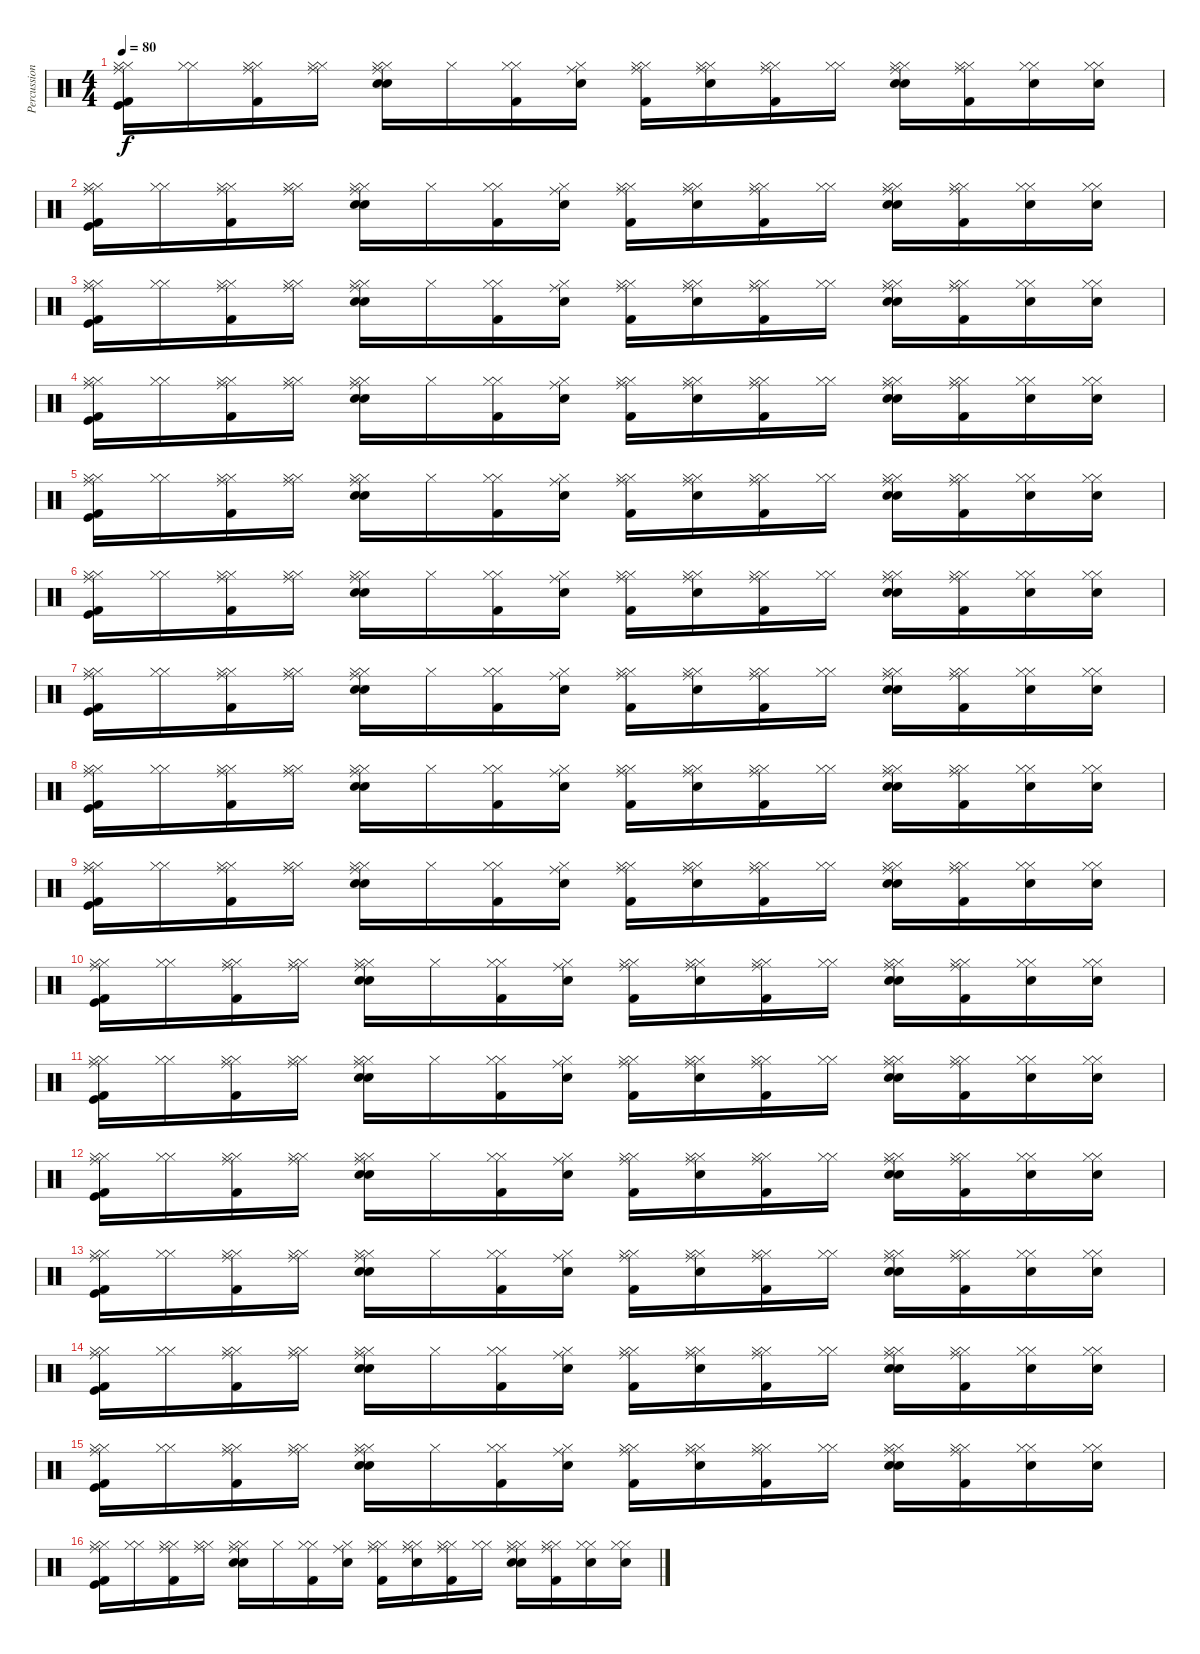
\track ("Percussions" "Percussion") {instrument percussion}
\staff {score}
\articulation defaults
\ts (4 4)
\tempo 80
\clef neutral
\ks c
("Hi-Hat (closed)" "Hi-Hat (closed)" "Ride (middle)" "Kick (hit) 2" "Kick (hit)").16{dy f} ("Hi-Hat (closed)" "Hi-Hat (closed)").16 ("Hi-Hat (closed)" "Ride (middle)" "Hi-Hat (closed)" "Kick (hit) 2").16 ("Hi-Hat (closed)" "Hi-Hat (closed)" "Ride (middle)").16 ("Snare (hit) 2" "Electric Snare (hit)" "Hi-Hat (closed)" "Hi-Hat (closed)" "Ride (middle)").16 "Hi-Hat (closed)".16 ("Hi-Hat (closed)" "Hi-Hat (closed)" "Kick (hit) 2").16 ("Electric Snare (hit)" "Hi-Hat (closed)" "Ride (middle)").16 ("Hi-Hat (closed)" "Hi-Hat (closed)" "Ride (middle)" "Kick (hit) 2").16 ("Hi-Hat (closed)" "Hi-Hat (closed)" "Ride (middle)" "Electric Snare (hit)").16 ("Hi-Hat (closed)" "Ride (middle)" "Hi-Hat (closed)" "Kick (hit) 2").16 ("Hi-Hat (closed)" "Hi-Hat (closed)").16 ("Snare (hit) 2" "Electric Snare (hit)" "Hi-Hat (closed)" "Ride (middle)" "Hi-Hat (closed)").16 ("Hi-Hat (closed)" "Hi-Hat (closed)" "Ride (middle)" "Kick (hit) 2").16 ("Hi-Hat (closed)" "Hi-Hat (closed)" "Electric Snare (hit)").16 ("Hi-Hat (closed)" "Hi-Hat (closed)" "Electric Snare (hit)").16 |
("Hi-Hat (closed)" "Hi-Hat (closed)" "Ride (middle)" "Kick (hit) 2" "Kick (hit)").16 ("Hi-Hat (closed)" "Hi-Hat (closed)").16 ("Hi-Hat (closed)" "Ride (middle)" "Hi-Hat (closed)" "Kick (hit) 2").16 ("Hi-Hat (closed)" "Hi-Hat (closed)" "Ride (middle)").16 ("Snare (hit) 2" "Electric Snare (hit)" "Hi-Hat (closed)" "Hi-Hat (closed)" "Ride (middle)").16 "Hi-Hat (closed)".16 ("Hi-Hat (closed)" "Hi-Hat (closed)" "Kick (hit) 2").16 ("Electric Snare (hit)" "Hi-Hat (closed)" "Ride (middle)").16 ("Hi-Hat (closed)" "Hi-Hat (closed)" "Ride (middle)" "Kick (hit) 2").16 ("Hi-Hat (closed)" "Hi-Hat (closed)" "Ride (middle)" "Electric Snare (hit)").16 ("Hi-Hat (closed)" "Ride (middle)" "Hi-Hat (closed)" "Kick (hit) 2").16 ("Hi-Hat (closed)" "Hi-Hat (closed)").16 ("Snare (hit) 2" "Electric Snare (hit)" "Hi-Hat (closed)" "Ride (middle)" "Hi-Hat (closed)").16 ("Hi-Hat (closed)" "Hi-Hat (closed)" "Ride (middle)" "Kick (hit) 2").16 ("Hi-Hat (closed)" "Hi-Hat (closed)" "Electric Snare (hit)").16 ("Hi-Hat (closed)" "Hi-Hat (closed)" "Electric Snare (hit)").16 |
("Hi-Hat (closed)" "Hi-Hat (closed)" "Ride (middle)" "Kick (hit) 2" "Kick (hit)").16 ("Hi-Hat (closed)" "Hi-Hat (closed)").16 ("Hi-Hat (closed)" "Ride (middle)" "Hi-Hat (closed)" "Kick (hit) 2").16 ("Hi-Hat (closed)" "Hi-Hat (closed)" "Ride (middle)").16 ("Snare (hit) 2" "Electric Snare (hit)" "Hi-Hat (closed)" "Hi-Hat (closed)" "Ride (middle)").16 "Hi-Hat (closed)".16 ("Hi-Hat (closed)" "Hi-Hat (closed)" "Kick (hit) 2").16 ("Electric Snare (hit)" "Hi-Hat (closed)" "Ride (middle)").16 ("Hi-Hat (closed)" "Hi-Hat (closed)" "Ride (middle)" "Kick (hit) 2").16 ("Hi-Hat (closed)" "Hi-Hat (closed)" "Ride (middle)" "Electric Snare (hit)").16 ("Hi-Hat (closed)" "Ride (middle)" "Hi-Hat (closed)" "Kick (hit) 2").16 ("Hi-Hat (closed)" "Hi-Hat (closed)").16 ("Snare (hit) 2" "Electric Snare (hit)" "Hi-Hat (closed)" "Ride (middle)" "Hi-Hat (closed)").16 ("Hi-Hat (closed)" "Hi-Hat (closed)" "Ride (middle)" "Kick (hit) 2").16 ("Hi-Hat (closed)" "Hi-Hat (closed)" "Electric Snare (hit)").16 ("Hi-Hat (closed)" "Hi-Hat (closed)" "Electric Snare (hit)").16 |
("Hi-Hat (closed)" "Hi-Hat (closed)" "Ride (middle)" "Kick (hit) 2" "Kick (hit)").16 ("Hi-Hat (closed)" "Hi-Hat (closed)").16 ("Hi-Hat (closed)" "Ride (middle)" "Hi-Hat (closed)" "Kick (hit) 2").16 ("Hi-Hat (closed)" "Hi-Hat (closed)" "Ride (middle)").16 ("Snare (hit) 2" "Electric Snare (hit)" "Hi-Hat (closed)" "Hi-Hat (closed)" "Ride (middle)").16 "Hi-Hat (closed)".16 ("Hi-Hat (closed)" "Hi-Hat (closed)" "Kick (hit) 2").16 ("Electric Snare (hit)" "Hi-Hat (closed)" "Ride (middle)").16 ("Hi-Hat (closed)" "Hi-Hat (closed)" "Ride (middle)" "Kick (hit) 2").16 ("Hi-Hat (closed)" "Hi-Hat (closed)" "Ride (middle)" "Electric Snare (hit)").16 ("Hi-Hat (closed)" "Ride (middle)" "Hi-Hat (closed)" "Kick (hit) 2").16 ("Hi-Hat (closed)" "Hi-Hat (closed)").16 ("Snare (hit) 2" "Electric Snare (hit)" "Hi-Hat (closed)" "Ride (middle)" "Hi-Hat (closed)").16 ("Hi-Hat (closed)" "Hi-Hat (closed)" "Ride (middle)" "Kick (hit) 2").16 ("Hi-Hat (closed)" "Hi-Hat (closed)" "Electric Snare (hit)").16 ("Hi-Hat (closed)" "Hi-Hat (closed)" "Electric Snare (hit)").16 |
("Hi-Hat (closed)" "Hi-Hat (closed)" "Ride (middle)" "Kick (hit) 2" "Kick (hit)").16 ("Hi-Hat (closed)" "Hi-Hat (closed)").16 ("Hi-Hat (closed)" "Ride (middle)" "Hi-Hat (closed)" "Kick (hit) 2").16 ("Hi-Hat (closed)" "Hi-Hat (closed)" "Ride (middle)").16 ("Snare (hit) 2" "Electric Snare (hit)" "Hi-Hat (closed)" "Hi-Hat (closed)" "Ride (middle)").16 "Hi-Hat (closed)".16 ("Hi-Hat (closed)" "Hi-Hat (closed)" "Kick (hit) 2").16 ("Electric Snare (hit)" "Hi-Hat (closed)" "Ride (middle)").16 ("Hi-Hat (closed)" "Hi-Hat (closed)" "Ride (middle)" "Kick (hit) 2").16 ("Hi-Hat (closed)" "Hi-Hat (closed)" "Ride (middle)" "Electric Snare (hit)").16 ("Hi-Hat (closed)" "Ride (middle)" "Hi-Hat (closed)" "Kick (hit) 2").16 ("Hi-Hat (closed)" "Hi-Hat (closed)").16 ("Snare (hit) 2" "Electric Snare (hit)" "Hi-Hat (closed)" "Ride (middle)" "Hi-Hat (closed)").16 ("Hi-Hat (closed)" "Hi-Hat (closed)" "Ride (middle)" "Kick (hit) 2").16 ("Hi-Hat (closed)" "Hi-Hat (closed)" "Electric Snare (hit)").16 ("Hi-Hat (closed)" "Hi-Hat (closed)" "Electric Snare (hit)").16 |
("Hi-Hat (closed)" "Hi-Hat (closed)" "Ride (middle)" "Kick (hit) 2" "Kick (hit)").16 ("Hi-Hat (closed)" "Hi-Hat (closed)").16 ("Hi-Hat (closed)" "Ride (middle)" "Hi-Hat (closed)" "Kick (hit) 2").16 ("Hi-Hat (closed)" "Hi-Hat (closed)" "Ride (middle)").16 ("Snare (hit) 2" "Electric Snare (hit)" "Hi-Hat (closed)" "Hi-Hat (closed)" "Ride (middle)").16 "Hi-Hat (closed)".16 ("Hi-Hat (closed)" "Hi-Hat (closed)" "Kick (hit) 2").16 ("Electric Snare (hit)" "Hi-Hat (closed)" "Ride (middle)").16 ("Hi-Hat (closed)" "Hi-Hat (closed)" "Ride (middle)" "Kick (hit) 2").16 ("Hi-Hat (closed)" "Hi-Hat (closed)" "Ride (middle)" "Electric Snare (hit)").16 ("Hi-Hat (closed)" "Ride (middle)" "Hi-Hat (closed)" "Kick (hit) 2").16 ("Hi-Hat (closed)" "Hi-Hat (closed)").16 ("Snare (hit) 2" "Electric Snare (hit)" "Hi-Hat (closed)" "Ride (middle)" "Hi-Hat (closed)").16 ("Hi-Hat (closed)" "Hi-Hat (closed)" "Ride (middle)" "Kick (hit) 2").16 ("Hi-Hat (closed)" "Hi-Hat (closed)" "Electric Snare (hit)").16 ("Hi-Hat (closed)" "Hi-Hat (closed)" "Electric Snare (hit)").16 |
("Hi-Hat (closed)" "Hi-Hat (closed)" "Ride (middle)" "Kick (hit) 2" "Kick (hit)").16 ("Hi-Hat (closed)" "Hi-Hat (closed)").16 ("Hi-Hat (closed)" "Ride (middle)" "Hi-Hat (closed)" "Kick (hit) 2").16 ("Hi-Hat (closed)" "Hi-Hat (closed)" "Ride (middle)").16 ("Snare (hit) 2" "Electric Snare (hit)" "Hi-Hat (closed)" "Hi-Hat (closed)" "Ride (middle)").16 "Hi-Hat (closed)".16 ("Hi-Hat (closed)" "Hi-Hat (closed)" "Kick (hit) 2").16 ("Electric Snare (hit)" "Hi-Hat (closed)" "Ride (middle)").16 ("Hi-Hat (closed)" "Hi-Hat (closed)" "Ride (middle)" "Kick (hit) 2").16 ("Hi-Hat (closed)" "Hi-Hat (closed)" "Ride (middle)" "Electric Snare (hit)").16 ("Hi-Hat (closed)" "Ride (middle)" "Hi-Hat (closed)" "Kick (hit) 2").16 ("Hi-Hat (closed)" "Hi-Hat (closed)").16 ("Snare (hit) 2" "Electric Snare (hit)" "Hi-Hat (closed)" "Ride (middle)" "Hi-Hat (closed)").16 ("Hi-Hat (closed)" "Hi-Hat (closed)" "Ride (middle)" "Kick (hit) 2").16 ("Hi-Hat (closed)" "Hi-Hat (closed)" "Electric Snare (hit)").16 ("Hi-Hat (closed)" "Hi-Hat (closed)" "Electric Snare (hit)").16 |
("Hi-Hat (closed)" "Hi-Hat (closed)" "Ride (middle)" "Kick (hit) 2" "Kick (hit)").16 ("Hi-Hat (closed)" "Hi-Hat (closed)").16 ("Hi-Hat (closed)" "Ride (middle)" "Hi-Hat (closed)" "Kick (hit) 2").16 ("Hi-Hat (closed)" "Hi-Hat (closed)" "Ride (middle)").16 ("Snare (hit) 2" "Electric Snare (hit)" "Hi-Hat (closed)" "Hi-Hat (closed)" "Ride (middle)").16 "Hi-Hat (closed)".16 ("Hi-Hat (closed)" "Hi-Hat (closed)" "Kick (hit) 2").16 ("Electric Snare (hit)" "Hi-Hat (closed)" "Ride (middle)").16 ("Hi-Hat (closed)" "Hi-Hat (closed)" "Ride (middle)" "Kick (hit) 2").16 ("Hi-Hat (closed)" "Hi-Hat (closed)" "Ride (middle)" "Electric Snare (hit)").16 ("Hi-Hat (closed)" "Ride (middle)" "Hi-Hat (closed)" "Kick (hit) 2").16 ("Hi-Hat (closed)" "Hi-Hat (closed)").16 ("Snare (hit) 2" "Electric Snare (hit)" "Hi-Hat (closed)" "Ride (middle)" "Hi-Hat (closed)").16 ("Hi-Hat (closed)" "Hi-Hat (closed)" "Ride (middle)" "Kick (hit) 2").16 ("Hi-Hat (closed)" "Hi-Hat (closed)" "Electric Snare (hit)").16 ("Hi-Hat (closed)" "Hi-Hat (closed)" "Electric Snare (hit)").16 |
("Hi-Hat (closed)" "Hi-Hat (closed)" "Ride (middle)" "Kick (hit) 2" "Kick (hit)").16 ("Hi-Hat (closed)" "Hi-Hat (closed)").16 ("Hi-Hat (closed)" "Ride (middle)" "Hi-Hat (closed)" "Kick (hit) 2").16 ("Hi-Hat (closed)" "Hi-Hat (closed)" "Ride (middle)").16 ("Snare (hit) 2" "Electric Snare (hit)" "Hi-Hat (closed)" "Hi-Hat (closed)" "Ride (middle)").16 "Hi-Hat (closed)".16 ("Hi-Hat (closed)" "Hi-Hat (closed)" "Kick (hit) 2").16 ("Electric Snare (hit)" "Hi-Hat (closed)" "Ride (middle)").16 ("Hi-Hat (closed)" "Hi-Hat (closed)" "Ride (middle)" "Kick (hit) 2").16 ("Hi-Hat (closed)" "Hi-Hat (closed)" "Ride (middle)" "Electric Snare (hit)").16 ("Hi-Hat (closed)" "Ride (middle)" "Hi-Hat (closed)" "Kick (hit) 2").16 ("Hi-Hat (closed)" "Hi-Hat (closed)").16 ("Snare (hit) 2" "Electric Snare (hit)" "Hi-Hat (closed)" "Ride (middle)" "Hi-Hat (closed)").16 ("Hi-Hat (closed)" "Hi-Hat (closed)" "Ride (middle)" "Kick (hit) 2").16 ("Hi-Hat (closed)" "Hi-Hat (closed)" "Electric Snare (hit)").16 ("Hi-Hat (closed)" "Hi-Hat (closed)" "Electric Snare (hit)").16 |
("Hi-Hat (closed)" "Hi-Hat (closed)" "Ride (middle)" "Kick (hit) 2" "Kick (hit)").16 ("Hi-Hat (closed)" "Hi-Hat (closed)").16 ("Hi-Hat (closed)" "Ride (middle)" "Hi-Hat (closed)" "Kick (hit) 2").16 ("Hi-Hat (closed)" "Hi-Hat (closed)" "Ride (middle)").16 ("Snare (hit) 2" "Electric Snare (hit)" "Hi-Hat (closed)" "Hi-Hat (closed)" "Ride (middle)").16 "Hi-Hat (closed)".16 ("Hi-Hat (closed)" "Hi-Hat (closed)" "Kick (hit) 2").16 ("Electric Snare (hit)" "Hi-Hat (closed)" "Ride (middle)").16 ("Hi-Hat (closed)" "Hi-Hat (closed)" "Ride (middle)" "Kick (hit) 2").16 ("Hi-Hat (closed)" "Hi-Hat (closed)" "Ride (middle)" "Electric Snare (hit)").16 ("Hi-Hat (closed)" "Ride (middle)" "Hi-Hat (closed)" "Kick (hit) 2").16 ("Hi-Hat (closed)" "Hi-Hat (closed)").16 ("Snare (hit) 2" "Electric Snare (hit)" "Hi-Hat (closed)" "Ride (middle)" "Hi-Hat (closed)").16 ("Hi-Hat (closed)" "Hi-Hat (closed)" "Ride (middle)" "Kick (hit) 2").16 ("Hi-Hat (closed)" "Hi-Hat (closed)" "Electric Snare (hit)").16 ("Hi-Hat (closed)" "Hi-Hat (closed)" "Electric Snare (hit)").16 |
("Hi-Hat (closed)" "Hi-Hat (closed)" "Ride (middle)" "Kick (hit) 2" "Kick (hit)").16 ("Hi-Hat (closed)" "Hi-Hat (closed)").16 ("Hi-Hat (closed)" "Ride (middle)" "Hi-Hat (closed)" "Kick (hit) 2").16 ("Hi-Hat (closed)" "Hi-Hat (closed)" "Ride (middle)").16 ("Snare (hit) 2" "Electric Snare (hit)" "Hi-Hat (closed)" "Hi-Hat (closed)" "Ride (middle)").16 "Hi-Hat (closed)".16 ("Hi-Hat (closed)" "Hi-Hat (closed)" "Kick (hit) 2").16 ("Electric Snare (hit)" "Hi-Hat (closed)" "Ride (middle)").16 ("Hi-Hat (closed)" "Hi-Hat (closed)" "Ride (middle)" "Kick (hit) 2").16 ("Hi-Hat (closed)" "Hi-Hat (closed)" "Ride (middle)" "Electric Snare (hit)").16 ("Hi-Hat (closed)" "Ride (middle)" "Hi-Hat (closed)" "Kick (hit) 2").16 ("Hi-Hat (closed)" "Hi-Hat (closed)").16 ("Snare (hit) 2" "Electric Snare (hit)" "Hi-Hat (closed)" "Ride (middle)" "Hi-Hat (closed)").16 ("Hi-Hat (closed)" "Hi-Hat (closed)" "Ride (middle)" "Kick (hit) 2").16 ("Hi-Hat (closed)" "Hi-Hat (closed)" "Electric Snare (hit)").16 ("Hi-Hat (closed)" "Hi-Hat (closed)" "Electric Snare (hit)").16 |
("Hi-Hat (closed)" "Hi-Hat (closed)" "Ride (middle)" "Kick (hit) 2" "Kick (hit)").16 ("Hi-Hat (closed)" "Hi-Hat (closed)").16 ("Hi-Hat (closed)" "Ride (middle)" "Hi-Hat (closed)" "Kick (hit) 2").16 ("Hi-Hat (closed)" "Hi-Hat (closed)" "Ride (middle)").16 ("Snare (hit) 2" "Electric Snare (hit)" "Hi-Hat (closed)" "Hi-Hat (closed)" "Ride (middle)").16 "Hi-Hat (closed)".16 ("Hi-Hat (closed)" "Hi-Hat (closed)" "Kick (hit) 2").16 ("Electric Snare (hit)" "Hi-Hat (closed)" "Ride (middle)").16 ("Hi-Hat (closed)" "Hi-Hat (closed)" "Ride (middle)" "Kick (hit) 2").16 ("Hi-Hat (closed)" "Hi-Hat (closed)" "Ride (middle)" "Electric Snare (hit)").16 ("Hi-Hat (closed)" "Ride (middle)" "Hi-Hat (closed)" "Kick (hit) 2").16 ("Hi-Hat (closed)" "Hi-Hat (closed)").16 ("Snare (hit) 2" "Electric Snare (hit)" "Hi-Hat (closed)" "Ride (middle)" "Hi-Hat (closed)").16 ("Hi-Hat (closed)" "Hi-Hat (closed)" "Ride (middle)" "Kick (hit) 2").16 ("Hi-Hat (closed)" "Hi-Hat (closed)" "Electric Snare (hit)").16 ("Hi-Hat (closed)" "Hi-Hat (closed)" "Electric Snare (hit)").16 |
("Hi-Hat (closed)" "Hi-Hat (closed)" "Ride (middle)" "Kick (hit) 2" "Kick (hit)").16 ("Hi-Hat (closed)" "Hi-Hat (closed)").16 ("Hi-Hat (closed)" "Ride (middle)" "Hi-Hat (closed)" "Kick (hit) 2").16 ("Hi-Hat (closed)" "Hi-Hat (closed)" "Ride (middle)").16 ("Snare (hit) 2" "Electric Snare (hit)" "Hi-Hat (closed)" "Hi-Hat (closed)" "Ride (middle)").16 "Hi-Hat (closed)".16 ("Hi-Hat (closed)" "Hi-Hat (closed)" "Kick (hit) 2").16 ("Electric Snare (hit)" "Hi-Hat (closed)" "Ride (middle)").16 ("Hi-Hat (closed)" "Hi-Hat (closed)" "Ride (middle)" "Kick (hit) 2").16 ("Hi-Hat (closed)" "Hi-Hat (closed)" "Ride (middle)" "Electric Snare (hit)").16 ("Hi-Hat (closed)" "Ride (middle)" "Hi-Hat (closed)" "Kick (hit) 2").16 ("Hi-Hat (closed)" "Hi-Hat (closed)").16 ("Snare (hit) 2" "Electric Snare (hit)" "Hi-Hat (closed)" "Ride (middle)" "Hi-Hat (closed)").16 ("Hi-Hat (closed)" "Hi-Hat (closed)" "Ride (middle)" "Kick (hit) 2").16 ("Hi-Hat (closed)" "Hi-Hat (closed)" "Electric Snare (hit)").16 ("Hi-Hat (closed)" "Hi-Hat (closed)" "Electric Snare (hit)").16 |
("Hi-Hat (closed)" "Hi-Hat (closed)" "Ride (middle)" "Kick (hit) 2" "Kick (hit)").16 ("Hi-Hat (closed)" "Hi-Hat (closed)").16 ("Hi-Hat (closed)" "Ride (middle)" "Hi-Hat (closed)" "Kick (hit) 2").16 ("Hi-Hat (closed)" "Hi-Hat (closed)" "Ride (middle)").16 ("Snare (hit) 2" "Electric Snare (hit)" "Hi-Hat (closed)" "Hi-Hat (closed)" "Ride (middle)").16 "Hi-Hat (closed)".16 ("Hi-Hat (closed)" "Hi-Hat (closed)" "Kick (hit) 2").16 ("Electric Snare (hit)" "Hi-Hat (closed)" "Ride (middle)").16 ("Hi-Hat (closed)" "Hi-Hat (closed)" "Ride (middle)" "Kick (hit) 2").16 ("Hi-Hat (closed)" "Hi-Hat (closed)" "Ride (middle)" "Electric Snare (hit)").16 ("Hi-Hat (closed)" "Ride (middle)" "Hi-Hat (closed)" "Kick (hit) 2").16 ("Hi-Hat (closed)" "Hi-Hat (closed)").16 ("Snare (hit) 2" "Electric Snare (hit)" "Hi-Hat (closed)" "Ride (middle)" "Hi-Hat (closed)").16 ("Hi-Hat (closed)" "Hi-Hat (closed)" "Ride (middle)" "Kick (hit) 2").16 ("Hi-Hat (closed)" "Hi-Hat (closed)" "Electric Snare (hit)").16 ("Hi-Hat (closed)" "Hi-Hat (closed)" "Electric Snare (hit)").16 |
("Hi-Hat (closed)" "Hi-Hat (closed)" "Ride (middle)" "Kick (hit) 2" "Kick (hit)").16 ("Hi-Hat (closed)" "Hi-Hat (closed)").16 ("Hi-Hat (closed)" "Ride (middle)" "Hi-Hat (closed)" "Kick (hit) 2").16 ("Hi-Hat (closed)" "Hi-Hat (closed)" "Ride (middle)").16 ("Snare (hit) 2" "Electric Snare (hit)" "Hi-Hat (closed)" "Hi-Hat (closed)" "Ride (middle)").16 "Hi-Hat (closed)".16 ("Hi-Hat (closed)" "Hi-Hat (closed)" "Kick (hit) 2").16 ("Electric Snare (hit)" "Hi-Hat (closed)" "Ride (middle)").16 ("Hi-Hat (closed)" "Hi-Hat (closed)" "Ride (middle)" "Kick (hit) 2").16 ("Hi-Hat (closed)" "Hi-Hat (closed)" "Ride (middle)" "Electric Snare (hit)").16 ("Hi-Hat (closed)" "Ride (middle)" "Hi-Hat (closed)" "Kick (hit) 2").16 ("Hi-Hat (closed)" "Hi-Hat (closed)").16 ("Snare (hit) 2" "Electric Snare (hit)" "Hi-Hat (closed)" "Ride (middle)" "Hi-Hat (closed)").16 ("Hi-Hat (closed)" "Hi-Hat (closed)" "Ride (middle)" "Kick (hit) 2").16 ("Hi-Hat (closed)" "Hi-Hat (closed)" "Electric Snare (hit)").16 ("Hi-Hat (closed)" "Hi-Hat (closed)" "Electric Snare (hit)").16 |
("Hi-Hat (closed)" "Hi-Hat (closed)" "Ride (middle)" "Kick (hit) 2" "Kick (hit)").16 ("Hi-Hat (closed)" "Hi-Hat (closed)").16 ("Hi-Hat (closed)" "Ride (middle)" "Hi-Hat (closed)" "Kick (hit) 2").16 ("Hi-Hat (closed)" "Hi-Hat (closed)" "Ride (middle)").16 ("Snare (hit) 2" "Electric Snare (hit)" "Hi-Hat (closed)" "Hi-Hat (closed)" "Ride (middle)").16 "Hi-Hat (closed)".16 ("Hi-Hat (closed)" "Hi-Hat (closed)" "Kick (hit) 2").16 ("Electric Snare (hit)" "Hi-Hat (closed)" "Ride (middle)").16 ("Hi-Hat (closed)" "Hi-Hat (closed)" "Ride (middle)" "Kick (hit) 2").16 ("Hi-Hat (closed)" "Hi-Hat (closed)" "Ride (middle)" "Electric Snare (hit)").16 ("Hi-Hat (closed)" "Ride (middle)" "Hi-Hat (closed)" "Kick (hit) 2").16 ("Hi-Hat (closed)" "Hi-Hat (closed)").16 ("Snare (hit) 2" "Electric Snare (hit)" "Hi-Hat (closed)" "Ride (middle)" "Hi-Hat (closed)").16 ("Hi-Hat (closed)" "Hi-Hat (closed)" "Ride (middle)" "Kick (hit) 2").16 ("Hi-Hat (closed)" "Hi-Hat (closed)" "Electric Snare (hit)").16 ("Hi-Hat (closed)" "Hi-Hat (closed)" "Electric Snare (hit)").16
